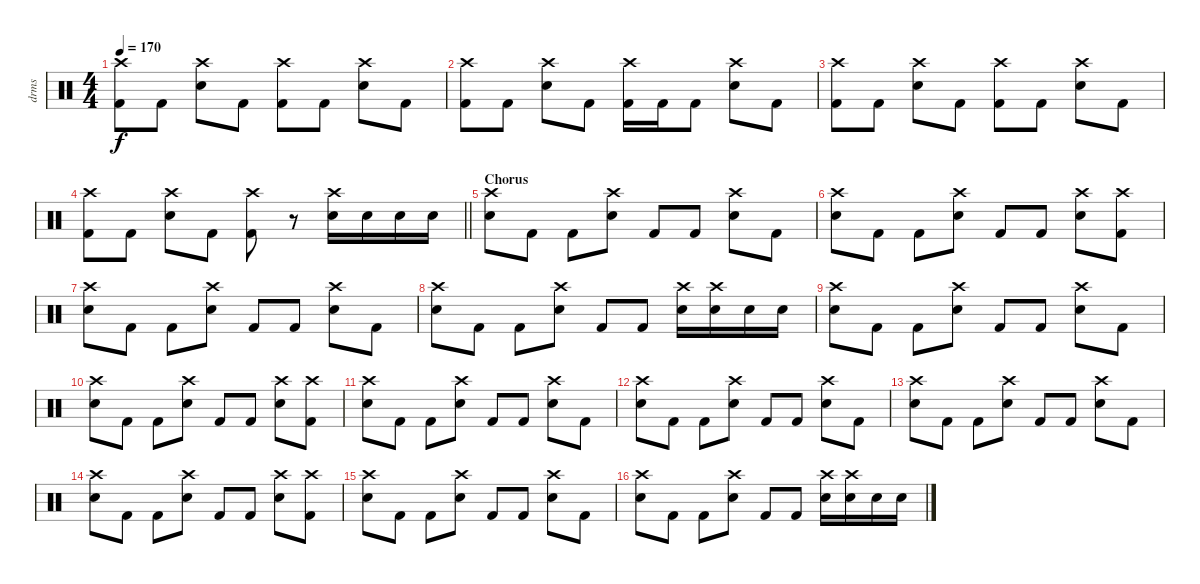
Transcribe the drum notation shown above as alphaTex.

\track ("drms" "drms") {instrument percussion}
\staff {score}
\articulation defaults
\ts (4 4)
\tempo 170
\clef neutral
\ks c
("Crash high (hit)" "Kick (hit) 2").8{dy f} "Kick (hit) 2".8 ("Crash high (hit)" "Snare (hit) 2").8 "Kick (hit) 2".8 ("Crash high (hit)" "Kick (hit) 2").8 "Kick (hit) 2".8 ("Crash high (hit)" "Snare (hit) 2").8 "Kick (hit) 2".8 |
("Crash high (hit)" "Kick (hit) 2").8 "Kick (hit) 2".8 ("Crash high (hit)" "Snare (hit) 2").8 "Kick (hit) 2".8 ("Crash high (hit)" "Kick (hit) 2").16 "Kick (hit) 2".16 "Kick (hit) 2".8 ("Crash high (hit)" "Snare (hit) 2").8 "Kick (hit) 2".8 |
("Crash high (hit)" "Kick (hit) 2").8 "Kick (hit) 2".8 ("Crash high (hit)" "Snare (hit) 2").8 "Kick (hit) 2".8 ("Crash high (hit)" "Kick (hit) 2").8 "Kick (hit) 2".8 ("Crash high (hit)" "Snare (hit) 2").8 "Kick (hit) 2".8 |
\barLineRight lightlight
("Crash high (hit)" "Kick (hit) 2").8 "Kick (hit) 2".8 ("Crash high (hit)" "Snare (hit) 2").8 "Kick (hit) 2".8 ("Crash high (hit)" "Kick (hit) 2").8 r.8 ("Crash high (hit)" "Electric Snare (hit)").16 "Electric Snare (hit)".16 "Electric Snare (hit)".16 "Electric Snare (hit)".16 |
\section ("" "Chorus")
("Crash high (hit)" "Snare (hit) 2").8 "Kick (hit) 2".8 "Kick (hit) 2".8 ("Crash high (hit)" "Snare (hit) 2").8 "Kick (hit) 2".8 "Kick (hit) 2".8 ("Crash high (hit)" "Snare (hit) 2").8 "Kick (hit) 2".8 |
("Crash high (hit)" "Snare (hit) 2").8 "Kick (hit) 2".8 "Kick (hit) 2".8 ("Crash high (hit)" "Snare (hit) 2").8 "Kick (hit) 2".8 "Kick (hit) 2".8 ("Crash high (hit)" "Snare (hit) 2").8 ("Crash high (hit)" "Kick (hit) 2").8 |
("Crash high (hit)" "Snare (hit) 2").8 "Kick (hit) 2".8 "Kick (hit) 2".8 ("Crash high (hit)" "Snare (hit) 2").8 "Kick (hit) 2".8 "Kick (hit) 2".8 ("Crash high (hit)" "Snare (hit) 2").8 "Kick (hit) 2".8 |
("Crash high (hit)" "Snare (hit) 2").8 "Kick (hit) 2".8 "Kick (hit) 2".8 ("Crash high (hit)" "Snare (hit) 2").8 "Kick (hit) 2".8 "Kick (hit) 2".8 ("Crash high (hit)" "Electric Snare (hit)").16 ("Crash high (hit)" "Electric Snare (hit)").16 "Electric Snare (hit)".16 "Electric Snare (hit)".16 |
("Crash high (hit)" "Snare (hit) 2").8 "Kick (hit) 2".8 "Kick (hit) 2".8 ("Crash high (hit)" "Snare (hit) 2").8 "Kick (hit) 2".8 "Kick (hit) 2".8 ("Crash high (hit)" "Snare (hit) 2").8 "Kick (hit) 2".8 |
("Crash high (hit)" "Snare (hit) 2").8 "Kick (hit) 2".8 "Kick (hit) 2".8 ("Crash high (hit)" "Snare (hit) 2").8 "Kick (hit) 2".8 "Kick (hit) 2".8 ("Crash high (hit)" "Snare (hit) 2").8 ("Crash high (hit)" "Kick (hit) 2").8 |
("Crash high (hit)" "Snare (hit) 2").8 "Kick (hit) 2".8 "Kick (hit) 2".8 ("Crash high (hit)" "Snare (hit) 2").8 "Kick (hit) 2".8 "Kick (hit) 2".8 ("Crash high (hit)" "Snare (hit) 2").8 "Kick (hit) 2".8 |
("Crash high (hit)" "Electric Snare (hit)").8 "Kick (hit) 2".8 "Kick (hit) 2".8 ("Crash high (hit)" "Electric Snare (hit)").8 "Kick (hit) 2".8 "Kick (hit) 2".8 ("Crash high (hit)" "Electric Snare (hit)").8 "Kick (hit) 2".8 |
("Crash high (hit)" "Snare (hit) 2").8 "Kick (hit) 2".8 "Kick (hit) 2".8 ("Crash high (hit)" "Snare (hit) 2").8 "Kick (hit) 2".8 "Kick (hit) 2".8 ("Crash high (hit)" "Snare (hit) 2").8 "Kick (hit) 2".8 |
("Crash high (hit)" "Snare (hit) 2").8 "Kick (hit) 2".8 "Kick (hit) 2".8 ("Crash high (hit)" "Snare (hit) 2").8 "Kick (hit) 2".8 "Kick (hit) 2".8 ("Crash high (hit)" "Snare (hit) 2").8 ("Crash high (hit)" "Kick (hit) 2").8 |
("Crash high (hit)" "Snare (hit) 2").8 "Kick (hit) 2".8 "Kick (hit) 2".8 ("Crash high (hit)" "Snare (hit) 2").8 "Kick (hit) 2".8 "Kick (hit) 2".8 ("Crash high (hit)" "Snare (hit) 2").8 "Kick (hit) 2".8 |
("Crash high (hit)" "Snare (hit) 2").8 "Kick (hit) 2".8 "Kick (hit) 2".8 ("Crash high (hit)" "Snare (hit) 2").8 "Kick (hit) 2".8 "Kick (hit) 2".8 ("Crash high (hit)" "Electric Snare (hit)").16 ("Crash high (hit)" "Electric Snare (hit)").16 "Electric Snare (hit)".16 "Electric Snare (hit)".16
